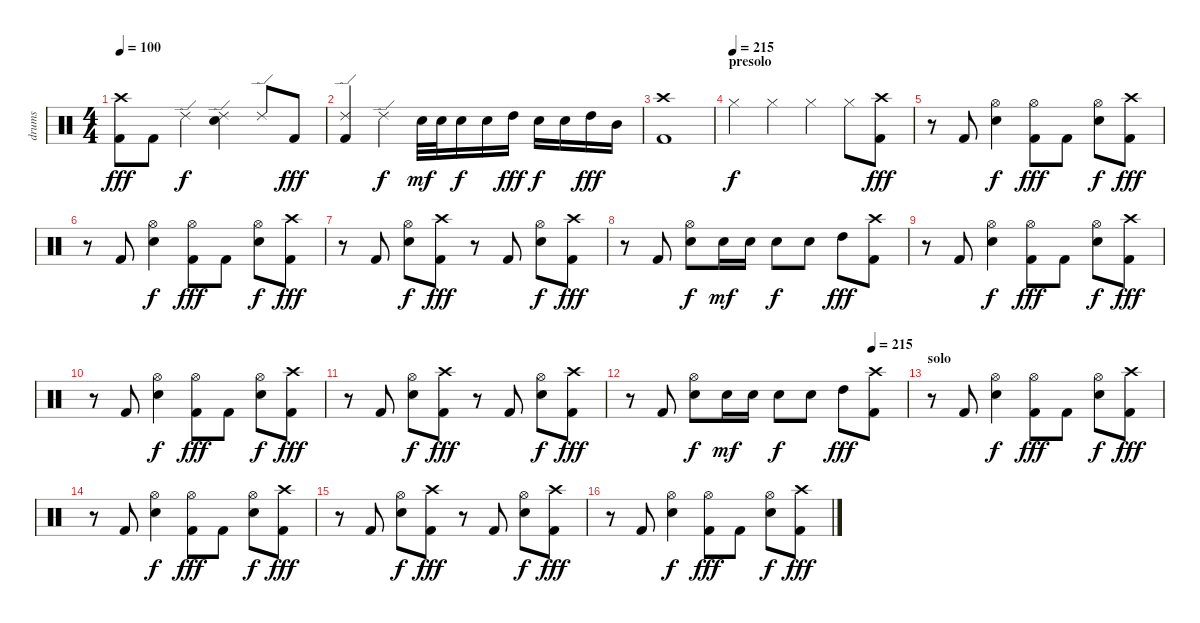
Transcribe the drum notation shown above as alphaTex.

\track ("drums" "drums") {instrument percussion}
\staff {score}
\articulation defaults
\ts (4 4)
\tempo 100
\clef neutral
\ks c
("Crash high (hit)" "Kick (hit) 2").8{dy fff} "Kick (hit) 2".8 "Ride (edge) 2".4{dy f} ("Ride (edge) 2" "Snare (hit) 2").4 "Ride (edge) 2".8 "Kick (hit) 2".8{dy fff} |
("Ride (edge) 2" "Kick (hit) 2").4 "Ride (edge) 2".4{dy f} "Snare (hit) 2".32{dy mf} "Snare (hit) 2".32 "Snare (hit) 2".16{dy f} "Snare (hit) 2".16 "High Tom (hit)".16{dy fff} "Snare (hit) 2".16{dy f} "Snare (hit) 2".16 "High Tom (hit)".16{dy fff} "Mid Tom (hit)".16 |
("Crash high (hit)" "Kick (hit) 2").1 |
\section ("" "presolo")
\tempo (215)
"Hi-Hat (closed)".4{dy f} "Hi-Hat (closed)".4 "Hi-Hat (closed)".4 "Hi-Hat (closed)".8 ("Crash high (hit)" "Kick (hit) 2").8{dy fff} |
r.8 "Kick (hit) 2".8 ("Hi-Hat (open)" "Snare (hit) 2").4{dy f} ("Hi-Hat (open)" "Kick (hit) 2").8{dy fff} "Kick (hit) 2".8 ("Hi-Hat (open)" "Snare (hit) 2").8{dy f} ("Crash high (hit)" "Kick (hit) 2").8{dy fff} |
r.8 "Kick (hit) 2".8 ("Hi-Hat (open)" "Snare (hit) 2").4{dy f} ("Hi-Hat (open)" "Kick (hit) 2").8{dy fff} "Kick (hit) 2".8 ("Hi-Hat (open)" "Snare (hit) 2").8{dy f} ("Crash high (hit)" "Kick (hit) 2").8{dy fff} |
r.8 "Kick (hit) 2".8 ("Hi-Hat (open)" "Snare (hit) 2").8{dy f} ("Crash high (hit)" "Kick (hit) 2").8{dy fff} r.8 "Kick (hit) 2".8 ("Hi-Hat (open)" "Snare (hit) 2").8{dy f} ("Crash high (hit)" "Kick (hit) 2").8{dy fff} |
r.8 "Kick (hit) 2".8 ("Hi-Hat (open)" "Snare (hit) 2").8{dy f} "Snare (hit) 2".16{dy mf} "Snare (hit) 2".16 "Snare (hit) 2".8{dy f} "Snare (hit) 2".8 "High Tom (hit)".8{dy fff} ("Crash high (hit)" "Kick (hit) 2").8 |
r.8 "Kick (hit) 2".8 ("Hi-Hat (open)" "Snare (hit) 2").4{dy f} ("Hi-Hat (open)" "Kick (hit) 2").8{dy fff} "Kick (hit) 2".8 ("Hi-Hat (open)" "Snare (hit) 2").8{dy f} ("Crash high (hit)" "Kick (hit) 2").8{dy fff} |
r.8 "Kick (hit) 2".8 ("Hi-Hat (open)" "Snare (hit) 2").4{dy f} ("Hi-Hat (open)" "Kick (hit) 2").8{dy fff} "Kick (hit) 2".8 ("Hi-Hat (open)" "Snare (hit) 2").8{dy f} ("Crash high (hit)" "Kick (hit) 2").8{dy fff} |
r.8 "Kick (hit) 2".8 ("Hi-Hat (open)" "Snare (hit) 2").8{dy f} ("Crash high (hit)" "Kick (hit) 2").8{dy fff} r.8 "Kick (hit) 2".8 ("Hi-Hat (open)" "Snare (hit) 2").8{dy f} ("Crash high (hit)" "Kick (hit) 2").8{dy fff} |
\tempo (215 0.875)
r.8 "Kick (hit) 2".8 ("Hi-Hat (open)" "Snare (hit) 2").8{dy f} "Snare (hit) 2".16{dy mf} "Snare (hit) 2".16 "Snare (hit) 2".8{dy f} "Snare (hit) 2".8 "High Tom (hit)".8{dy fff} ("Crash high (hit)" "Kick (hit) 2").8 |
\section ("" "solo")
r.8 "Kick (hit) 2".8 ("Hi-Hat (open)" "Snare (hit) 2").4{dy f} ("Hi-Hat (open)" "Kick (hit) 2").8{dy fff} "Kick (hit) 2".8 ("Hi-Hat (open)" "Snare (hit) 2").8{dy f} ("Crash high (hit)" "Kick (hit) 2").8{dy fff} |
r.8 "Kick (hit) 2".8 ("Hi-Hat (open)" "Snare (hit) 2").4{dy f} ("Hi-Hat (open)" "Kick (hit) 2").8{dy fff} "Kick (hit) 2".8 ("Hi-Hat (open)" "Snare (hit) 2").8{dy f} ("Crash high (hit)" "Kick (hit) 2").8{dy fff} |
r.8 "Kick (hit) 2".8 ("Hi-Hat (open)" "Snare (hit) 2").8{dy f} ("Crash high (hit)" "Kick (hit) 2").8{dy fff} r.8 "Kick (hit) 2".8 ("Hi-Hat (open)" "Snare (hit) 2").8{dy f} ("Crash high (hit)" "Kick (hit) 2").8{dy fff} |
r.8 "Kick (hit) 2".8 ("Hi-Hat (open)" "Snare (hit) 2").4{dy f} ("Hi-Hat (open)" "Kick (hit) 2").8{dy fff} "Kick (hit) 2".8 ("Hi-Hat (open)" "Snare (hit) 2").8{dy f} ("Crash high (hit)" "Kick (hit) 2").8{dy fff}
